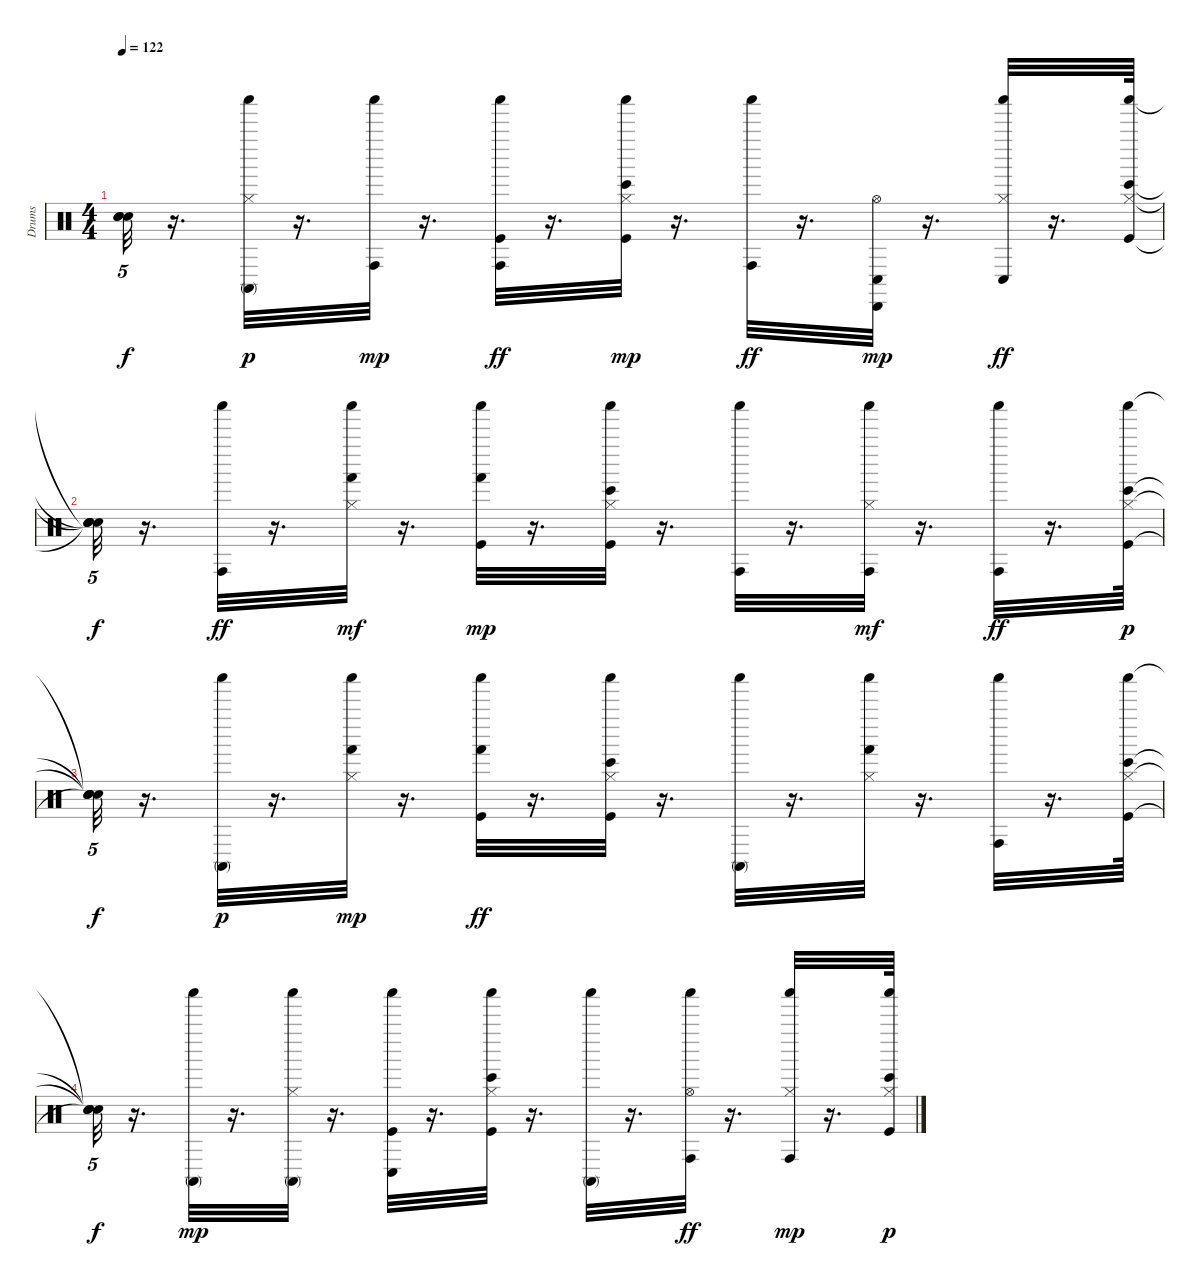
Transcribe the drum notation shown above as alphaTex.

\track ("Drums" "Drums") {instrument percussion}
\staff {score}
\articulation defaults
\ts (4 4)
\tempo 122
\clef neutral
\ks c
("Snare (hit)"{t} "Snare (hit)"{t} "Snare (hit)"{t}).32{tu (5 4) dy f} r.16{d} ("Hi-Hat (closed)" "Conga high (mute)" "Shaker (hit)").32{dy p} r.16{d} ("Shaker (hit)" "Conga high (hit)").32{dy mp} r.16{d} ("Shaker (hit)" "Kick (hit)" "Conga high (hit)").32{dy ff} r.16{d} ("Shaker (hit)" "Kick (hit)" "Hi-Hat (closed)" "Bongo High (hit)").32{dy mp} r.16{d} ("Shaker (hit)" "Conga high (hit)").32{dy ff} r.16{d} ("Hi-Hat (open)" "Conga low (hit)" "Cabasa (hit)").32{dy mp} r.16{d} ("Shaker (hit)" "Hi-Hat (closed)" "Conga low (hit)").32{dy ff} r.16{d} ("Shaker (hit)" "Kick (hit)" "Hi-Hat (closed)" "Bongo High (hit)").64 |
("Snare (hit)"{t} "Snare (hit)"{t} "Snare (hit)"{t} "Snare (hit)"{t}).32{tu (5 4) dy f} r.16{d} ("Shaker (hit)" "Conga high (hit)").32{dy ff} r.16{d} ("Shaker (hit)" "Hi-Hat (closed)" "Hand (hit)").32{dy mf} r.16{d} ("Shaker (hit)" "Kick (hit)" "Hand (hit)").32{dy mp} r.16{d} ("Hi-Hat (closed)" "Bongo High (hit)" "Shaker (hit)" "Kick (hit)").32 r.16{d} ("Shaker (hit)" "Conga high (hit)").32 r.16{d} ("Hi-Hat (closed)" "Shaker (hit)" "Conga high (hit)").32{dy mf} r.16{d} ("Shaker (hit)" "Conga high (hit)").32{dy ff} r.16{d} ("Kick (hit)" "Hi-Hat (closed)" "Bongo High (hit)" "Shaker (hit)").64{dy p} |
("Snare (hit)"{t} "Snare (hit)"{t} "Snare (hit)"{t} "Snare (hit)"{t}).32{tu (5 4) dy f} r.16{d} ("Conga high (mute)" "Shaker (hit)").32{dy p} r.16{d} ("Hi-Hat (closed)" "Hand (hit)" "Shaker (hit)").32{dy mp} r.16{d} ("Shaker (hit)" "Kick (hit)" "Hand (hit)").32{dy ff} r.16{d} ("Hi-Hat (closed)" "Shaker (hit)" "Kick (hit)" "Bongo High (hit)").32 r.16{d} ("Shaker (hit)" "Conga high (mute)").32 r.16{d} ("Shaker (hit)" "Hi-Hat (closed)" "Hand (hit)").32 r.16{d} ("Shaker (hit)" "Conga high (hit)").32 r.16{d} ("Shaker (hit)" "Kick (hit)" "Hi-Hat (closed)" "Bongo High (hit)").64 |
("Snare (hit)"{t} "Snare (hit)"{t} "Snare (hit)"{t} "Snare (hit)"{t}).32{tu (5 4) dy f} r.16{d} ("Conga high (mute)" "Shaker (hit)").32{dy mp} r.16{d} ("Conga high (mute)" "Shaker (hit)" "Hi-Hat (closed)").32 r.16{d} ("Conga low (hit)" "Shaker (hit)" "Kick (hit)").32 r.16{d} ("Hi-Hat (closed)" "Bongo High (hit)" "Shaker (hit)" "Kick (hit)").32 r.16{d} ("Shaker (hit)" "Conga high (mute)").32 r.16{d} ("Shaker (hit)" "Hi-Hat (open)" "Conga high (hit)").32{dy ff} r.16{d} ("Conga high (hit)" "Shaker (hit)" "Hi-Hat (closed)").32{dy mp} r.16{d} ("Hi-Hat (closed)" "Bongo High (hit)" "Kick (hit)" "Shaker (hit)").64{dy p}
